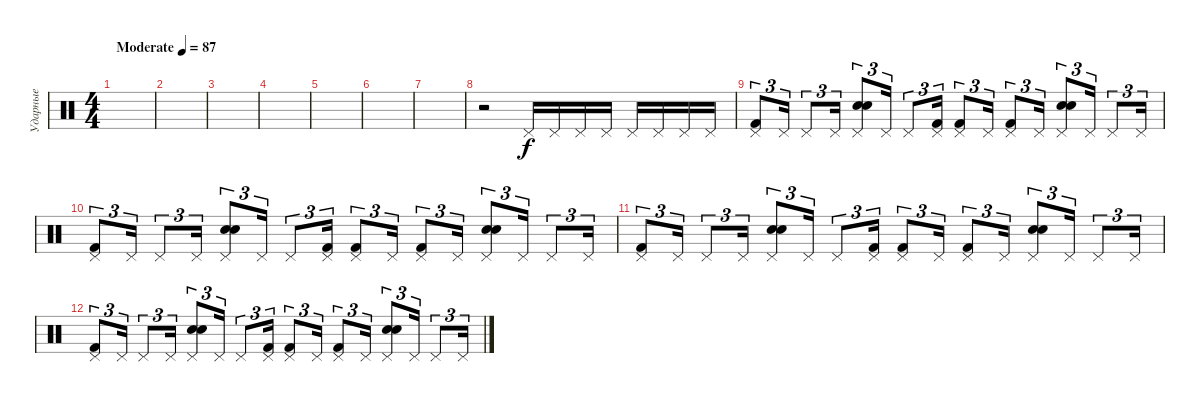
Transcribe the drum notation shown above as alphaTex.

\track ("Ударные" "Ударные") {instrument percussion}
\staff {score}
\articulation defaults
\ts (4 4)
\tempo (87 "Moderate")
\clef neutral
\ks c
|
|
|
|
|
|
|
r.2 "Pedal Hi-Hat (hit)".16 "Pedal Hi-Hat (hit)".16 "Pedal Hi-Hat (hit)".16 "Pedal Hi-Hat (hit)".16 "Pedal Hi-Hat (hit)".16 "Pedal Hi-Hat (hit)".16 "Pedal Hi-Hat (hit)".16 "Pedal Hi-Hat (hit)".16 |
("Pedal Hi-Hat (hit)" "Kick (hit) 2").8{tu (3 2)} "Pedal Hi-Hat (hit)".16{tu (3 2)} "Pedal Hi-Hat (hit)".8{tu (3 2)} "Pedal Hi-Hat (hit)".16{tu (3 2)} ("Electric Snare (hit)" "Pedal Hi-Hat (hit)" "Snare (hit) 2").8{tu (3 2)} "Pedal Hi-Hat (hit)".16{tu (3 2)} "Pedal Hi-Hat (hit)".8{tu (3 2)} ("Pedal Hi-Hat (hit)" "Kick (hit) 2").16{tu (3 2)} ("Pedal Hi-Hat (hit)" "Kick (hit) 2").8{tu (3 2)} "Pedal Hi-Hat (hit)".16{tu (3 2)} ("Pedal Hi-Hat (hit)" "Kick (hit) 2").8{tu (3 2)} "Pedal Hi-Hat (hit)".16{tu (3 2)} ("Electric Snare (hit)" "Pedal Hi-Hat (hit)" "Snare (hit) 2").8{tu (3 2)} "Pedal Hi-Hat (hit)".16{tu (3 2)} "Pedal Hi-Hat (hit)".8{tu (3 2)} "Pedal Hi-Hat (hit)".16{tu (3 2)} |
("Pedal Hi-Hat (hit)" "Kick (hit) 2").8{tu (3 2)} "Pedal Hi-Hat (hit)".16{tu (3 2)} "Pedal Hi-Hat (hit)".8{tu (3 2)} "Pedal Hi-Hat (hit)".16{tu (3 2)} ("Electric Snare (hit)" "Pedal Hi-Hat (hit)" "Snare (hit) 2").8{tu (3 2)} "Pedal Hi-Hat (hit)".16{tu (3 2)} "Pedal Hi-Hat (hit)".8{tu (3 2)} ("Pedal Hi-Hat (hit)" "Kick (hit) 2").16{tu (3 2)} ("Pedal Hi-Hat (hit)" "Kick (hit) 2").8{tu (3 2)} "Pedal Hi-Hat (hit)".16{tu (3 2)} ("Pedal Hi-Hat (hit)" "Kick (hit) 2").8{tu (3 2)} "Pedal Hi-Hat (hit)".16{tu (3 2)} ("Electric Snare (hit)" "Pedal Hi-Hat (hit)" "Snare (hit) 2").8{tu (3 2)} "Pedal Hi-Hat (hit)".16{tu (3 2)} "Pedal Hi-Hat (hit)".8{tu (3 2)} "Pedal Hi-Hat (hit)".16{tu (3 2)} |
("Pedal Hi-Hat (hit)" "Kick (hit) 2").8{tu (3 2)} "Pedal Hi-Hat (hit)".16{tu (3 2)} "Pedal Hi-Hat (hit)".8{tu (3 2)} "Pedal Hi-Hat (hit)".16{tu (3 2)} ("Electric Snare (hit)" "Pedal Hi-Hat (hit)" "Snare (hit) 2").8{tu (3 2)} "Pedal Hi-Hat (hit)".16{tu (3 2)} "Pedal Hi-Hat (hit)".8{tu (3 2)} ("Pedal Hi-Hat (hit)" "Kick (hit) 2").16{tu (3 2)} ("Pedal Hi-Hat (hit)" "Kick (hit) 2").8{tu (3 2)} "Pedal Hi-Hat (hit)".16{tu (3 2)} ("Pedal Hi-Hat (hit)" "Kick (hit) 2").8{tu (3 2)} "Pedal Hi-Hat (hit)".16{tu (3 2)} ("Electric Snare (hit)" "Pedal Hi-Hat (hit)" "Snare (hit) 2").8{tu (3 2)} "Pedal Hi-Hat (hit)".16{tu (3 2)} "Pedal Hi-Hat (hit)".8{tu (3 2)} "Pedal Hi-Hat (hit)".16{tu (3 2)} |
("Pedal Hi-Hat (hit)" "Kick (hit) 2").8{tu (3 2)} "Pedal Hi-Hat (hit)".16{tu (3 2)} "Pedal Hi-Hat (hit)".8{tu (3 2)} "Pedal Hi-Hat (hit)".16{tu (3 2)} ("Electric Snare (hit)" "Pedal Hi-Hat (hit)" "Snare (hit) 2").8{tu (3 2)} "Pedal Hi-Hat (hit)".16{tu (3 2)} "Pedal Hi-Hat (hit)".8{tu (3 2)} ("Pedal Hi-Hat (hit)" "Kick (hit) 2").16{tu (3 2)} ("Pedal Hi-Hat (hit)" "Kick (hit) 2").8{tu (3 2)} "Pedal Hi-Hat (hit)".16{tu (3 2)} ("Pedal Hi-Hat (hit)" "Kick (hit) 2").8{tu (3 2)} "Pedal Hi-Hat (hit)".16{tu (3 2)} ("Electric Snare (hit)" "Pedal Hi-Hat (hit)" "Snare (hit) 2").8{tu (3 2)} "Pedal Hi-Hat (hit)".16{tu (3 2)} "Pedal Hi-Hat (hit)".8{tu (3 2)} "Pedal Hi-Hat (hit)".16{tu (3 2)}
